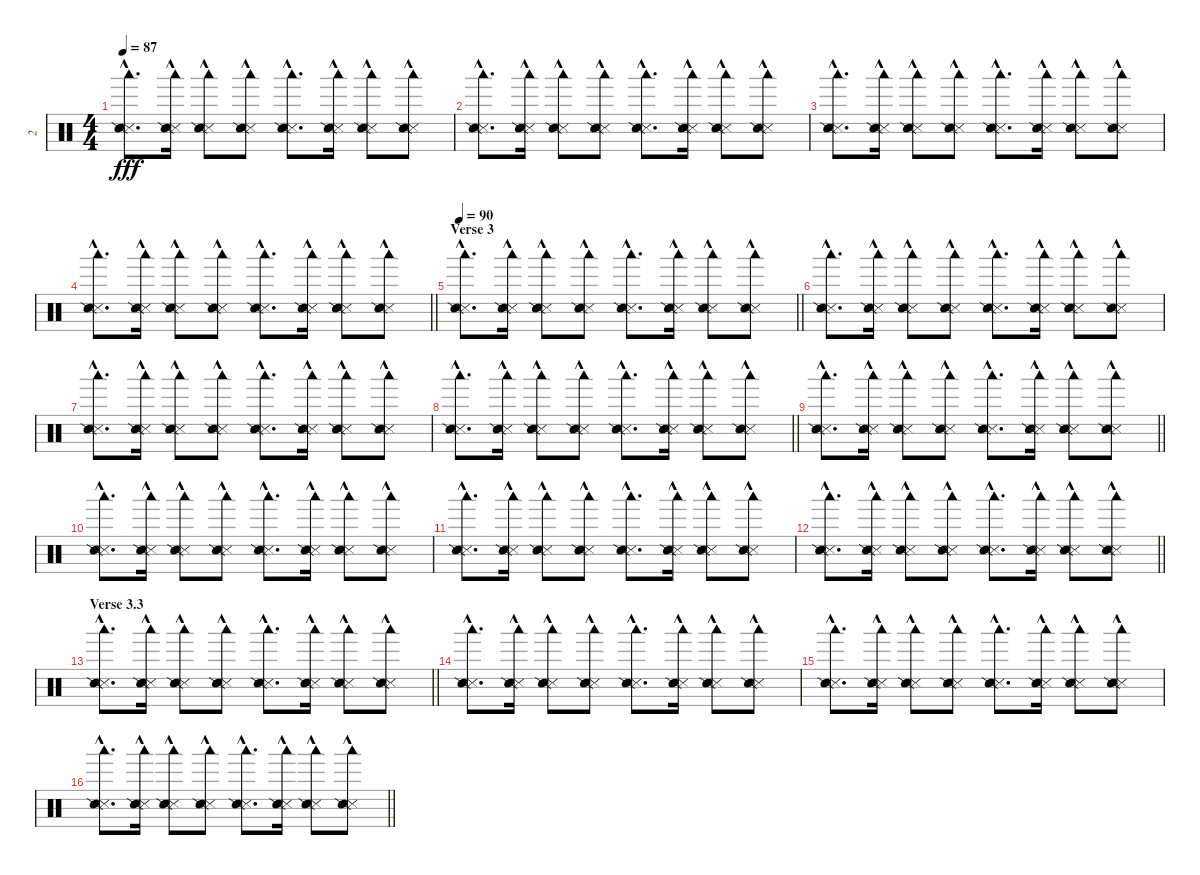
\track ("2" "2") {instrument percussion}
\staff {score}
\articulation defaults
\ts (4 4)
\tempo 87
\clef neutral
\ks c
("Snare (side stick) 3"{hac} "Snare (side stick) 2"{hac} "Woodblock low (hit)").8{d dy fff} ("Snare (side stick) 3"{hac} "Snare (side stick) 2"{hac} "Woodblock low (hit)").16 ("Snare (side stick) 3"{hac} "Snare (side stick) 2"{hac} "Woodblock low (hit)").8 ("Snare (side stick) 3"{hac} "Snare (side stick) 2"{hac} "Woodblock low (hit)").8 ("Snare (side stick) 3"{hac} "Snare (side stick) 2"{hac} "Woodblock low (hit)").8{d} ("Snare (side stick) 3"{hac} "Snare (side stick) 2"{hac} "Woodblock low (hit)").16 ("Snare (side stick) 3"{hac} "Snare (side stick) 2"{hac} "Woodblock low (hit)").8 ("Snare (side stick) 3"{hac} "Snare (side stick) 2"{hac} "Woodblock low (hit)").8 |
("Snare (side stick) 3"{hac} "Snare (side stick) 2"{hac} "Woodblock low (hit)").8{d} ("Snare (side stick) 3"{hac} "Snare (side stick) 2"{hac} "Woodblock low (hit)").16 ("Snare (side stick) 3"{hac} "Snare (side stick) 2"{hac} "Woodblock low (hit)").8 ("Snare (side stick) 3"{hac} "Snare (side stick) 2"{hac} "Woodblock low (hit)").8 ("Snare (side stick) 3"{hac} "Snare (side stick) 2"{hac} "Woodblock low (hit)").8{d} ("Snare (side stick) 3"{hac} "Snare (side stick) 2"{hac} "Woodblock low (hit)").16 ("Snare (side stick) 3"{hac} "Snare (side stick) 2"{hac} "Woodblock low (hit)").8 ("Snare (side stick) 3"{hac} "Snare (side stick) 2"{hac} "Woodblock low (hit)").8 |
("Snare (side stick) 3"{hac} "Snare (side stick) 2"{hac} "Woodblock low (hit)").8{d} ("Snare (side stick) 3"{hac} "Snare (side stick) 2"{hac} "Woodblock low (hit)").16 ("Snare (side stick) 3"{hac} "Snare (side stick) 2"{hac} "Woodblock low (hit)").8 ("Snare (side stick) 3"{hac} "Snare (side stick) 2"{hac} "Woodblock low (hit)").8 ("Snare (side stick) 3"{hac} "Snare (side stick) 2"{hac} "Woodblock low (hit)").8{d} ("Snare (side stick) 3"{hac} "Snare (side stick) 2"{hac} "Woodblock low (hit)").16 ("Snare (side stick) 3"{hac} "Snare (side stick) 2"{hac} "Woodblock low (hit)").8 ("Snare (side stick) 3"{hac} "Snare (side stick) 2"{hac} "Woodblock low (hit)").8 |
\barLineRight lightlight
("Snare (side stick) 3"{hac} "Snare (side stick) 2"{hac} "Woodblock low (hit)").8{d} ("Snare (side stick) 3"{hac} "Snare (side stick) 2"{hac} "Woodblock low (hit)").16 ("Snare (side stick) 3"{hac} "Snare (side stick) 2"{hac} "Woodblock low (hit)").8 ("Snare (side stick) 3"{hac} "Snare (side stick) 2"{hac} "Woodblock low (hit)").8 ("Snare (side stick) 3"{hac} "Snare (side stick) 2"{hac} "Woodblock low (hit)").8{d} ("Snare (side stick) 3"{hac} "Snare (side stick) 2"{hac} "Woodblock low (hit)").16 ("Snare (side stick) 3"{hac} "Snare (side stick) 2"{hac} "Woodblock low (hit)").8 ("Snare (side stick) 3"{hac} "Snare (side stick) 2"{hac} "Woodblock low (hit)").8 |
\section ("" "Verse 3")
\tempo 90
\barLineRight lightlight
("Snare (side stick) 3"{hac} "Snare (side stick) 2"{hac} "Woodblock low (hit)").8{d} ("Snare (side stick) 3"{hac} "Snare (side stick) 2"{hac} "Woodblock low (hit)").16 ("Snare (side stick) 3"{hac} "Snare (side stick) 2"{hac} "Woodblock low (hit)").8 ("Snare (side stick) 3"{hac} "Snare (side stick) 2"{hac} "Woodblock low (hit)").8 ("Snare (side stick) 3"{hac} "Snare (side stick) 2"{hac} "Woodblock low (hit)").8{d} ("Snare (side stick) 3"{hac} "Snare (side stick) 2"{hac} "Woodblock low (hit)").16 ("Snare (side stick) 3"{hac} "Snare (side stick) 2"{hac} "Woodblock low (hit)").8 ("Snare (side stick) 3"{hac} "Snare (side stick) 2"{hac} "Woodblock low (hit)").8 |
("Snare (side stick) 3"{hac} "Snare (side stick) 2"{hac} "Woodblock low (hit)").8{d} ("Snare (side stick) 3"{hac} "Snare (side stick) 2"{hac} "Woodblock low (hit)").16 ("Snare (side stick) 3"{hac} "Snare (side stick) 2"{hac} "Woodblock low (hit)").8 ("Snare (side stick) 3"{hac} "Snare (side stick) 2"{hac} "Woodblock low (hit)").8 ("Snare (side stick) 3"{hac} "Snare (side stick) 2"{hac} "Woodblock low (hit)").8{d} ("Snare (side stick) 3"{hac} "Snare (side stick) 2"{hac} "Woodblock low (hit)").16 ("Snare (side stick) 3"{hac} "Snare (side stick) 2"{hac} "Woodblock low (hit)").8 ("Snare (side stick) 3"{hac} "Snare (side stick) 2"{hac} "Woodblock low (hit)").8 |
("Snare (side stick) 3"{hac} "Snare (side stick) 2"{hac} "Woodblock low (hit)").8{d} ("Snare (side stick) 3"{hac} "Snare (side stick) 2"{hac} "Woodblock low (hit)").16 ("Snare (side stick) 3"{hac} "Snare (side stick) 2"{hac} "Woodblock low (hit)").8 ("Snare (side stick) 3"{hac} "Snare (side stick) 2"{hac} "Woodblock low (hit)").8 ("Snare (side stick) 3"{hac} "Snare (side stick) 2"{hac} "Woodblock low (hit)").8{d} ("Snare (side stick) 3"{hac} "Snare (side stick) 2"{hac} "Woodblock low (hit)").16 ("Snare (side stick) 3"{hac} "Snare (side stick) 2"{hac} "Woodblock low (hit)").8 ("Snare (side stick) 3"{hac} "Snare (side stick) 2"{hac} "Woodblock low (hit)").8 |
\barLineRight lightlight
("Snare (side stick) 3"{hac} "Snare (side stick) 2"{hac} "Woodblock low (hit)").8{d} ("Snare (side stick) 3"{hac} "Snare (side stick) 2"{hac} "Woodblock low (hit)").16 ("Snare (side stick) 3"{hac} "Snare (side stick) 2"{hac} "Woodblock low (hit)").8 ("Snare (side stick) 3"{hac} "Snare (side stick) 2"{hac} "Woodblock low (hit)").8 ("Snare (side stick) 3"{hac} "Snare (side stick) 2"{hac} "Woodblock low (hit)").8{d} ("Snare (side stick) 3"{hac} "Snare (side stick) 2"{hac} "Woodblock low (hit)").16 ("Snare (side stick) 3"{hac} "Snare (side stick) 2"{hac} "Woodblock low (hit)").8 ("Snare (side stick) 3"{hac} "Snare (side stick) 2"{hac} "Woodblock low (hit)").8 |
\barLineRight lightlight
("Snare (side stick) 3"{hac} "Snare (side stick) 2"{hac} "Woodblock low (hit)").8{d} ("Snare (side stick) 3"{hac} "Snare (side stick) 2"{hac} "Woodblock low (hit)").16 ("Snare (side stick) 3"{hac} "Snare (side stick) 2"{hac} "Woodblock low (hit)").8 ("Snare (side stick) 3"{hac} "Snare (side stick) 2"{hac} "Woodblock low (hit)").8 ("Snare (side stick) 3"{hac} "Snare (side stick) 2"{hac} "Woodblock low (hit)").8{d} ("Snare (side stick) 3"{hac} "Snare (side stick) 2"{hac} "Woodblock low (hit)").16 ("Snare (side stick) 3"{hac} "Snare (side stick) 2"{hac} "Woodblock low (hit)").8 ("Snare (side stick) 3"{hac} "Snare (side stick) 2"{hac} "Woodblock low (hit)").8 |
("Snare (side stick) 3"{hac} "Snare (side stick) 2"{hac} "Woodblock low (hit)").8{d} ("Snare (side stick) 3"{hac} "Snare (side stick) 2"{hac} "Woodblock low (hit)").16 ("Snare (side stick) 3"{hac} "Snare (side stick) 2"{hac} "Woodblock low (hit)").8 ("Snare (side stick) 3"{hac} "Snare (side stick) 2"{hac} "Woodblock low (hit)").8 ("Snare (side stick) 3"{hac} "Snare (side stick) 2"{hac} "Woodblock low (hit)").8{d} ("Snare (side stick) 3"{hac} "Snare (side stick) 2"{hac} "Woodblock low (hit)").16 ("Snare (side stick) 3"{hac} "Snare (side stick) 2"{hac} "Woodblock low (hit)").8 ("Snare (side stick) 3"{hac} "Snare (side stick) 2"{hac} "Woodblock low (hit)").8 |
("Snare (side stick) 3"{hac} "Snare (side stick) 2"{hac} "Woodblock low (hit)").8{d} ("Snare (side stick) 3"{hac} "Snare (side stick) 2"{hac} "Woodblock low (hit)").16 ("Snare (side stick) 3"{hac} "Snare (side stick) 2"{hac} "Woodblock low (hit)").8 ("Snare (side stick) 3"{hac} "Snare (side stick) 2"{hac} "Woodblock low (hit)").8 ("Snare (side stick) 3"{hac} "Snare (side stick) 2"{hac} "Woodblock low (hit)").8{d} ("Snare (side stick) 3"{hac} "Snare (side stick) 2"{hac} "Woodblock low (hit)").16 ("Snare (side stick) 3"{hac} "Snare (side stick) 2"{hac} "Woodblock low (hit)").8 ("Snare (side stick) 3"{hac} "Snare (side stick) 2"{hac} "Woodblock low (hit)").8 |
\barLineRight lightlight
("Snare (side stick) 3"{hac} "Snare (side stick) 2"{hac} "Woodblock low (hit)").8{d} ("Snare (side stick) 3"{hac} "Snare (side stick) 2"{hac} "Woodblock low (hit)").16 ("Snare (side stick) 3"{hac} "Snare (side stick) 2"{hac} "Woodblock low (hit)").8 ("Snare (side stick) 3"{hac} "Snare (side stick) 2"{hac} "Woodblock low (hit)").8 ("Snare (side stick) 3"{hac} "Snare (side stick) 2"{hac} "Woodblock low (hit)").8{d} ("Snare (side stick) 3"{hac} "Snare (side stick) 2"{hac} "Woodblock low (hit)").16 ("Snare (side stick) 3"{hac} "Snare (side stick) 2"{hac} "Woodblock low (hit)").8 ("Snare (side stick) 3"{hac} "Snare (side stick) 2"{hac} "Woodblock low (hit)").8 |
\section ("" "Verse 3.3")
\barLineRight lightlight
("Snare (side stick) 3"{hac} "Snare (side stick) 2"{hac} "Woodblock low (hit)").8{d} ("Snare (side stick) 3"{hac} "Snare (side stick) 2"{hac} "Woodblock low (hit)").16 ("Snare (side stick) 3"{hac} "Snare (side stick) 2"{hac} "Woodblock low (hit)").8 ("Snare (side stick) 3"{hac} "Snare (side stick) 2"{hac} "Woodblock low (hit)").8 ("Snare (side stick) 3"{hac} "Snare (side stick) 2"{hac} "Woodblock low (hit)").8{d} ("Snare (side stick) 3"{hac} "Snare (side stick) 2"{hac} "Woodblock low (hit)").16 ("Snare (side stick) 3"{hac} "Snare (side stick) 2"{hac} "Woodblock low (hit)").8 ("Snare (side stick) 3"{hac} "Snare (side stick) 2"{hac} "Woodblock low (hit)").8 |
("Snare (side stick) 3"{hac} "Snare (side stick) 2"{hac} "Woodblock low (hit)").8{d} ("Snare (side stick) 3"{hac} "Snare (side stick) 2"{hac} "Woodblock low (hit)").16 ("Snare (side stick) 3"{hac} "Snare (side stick) 2"{hac} "Woodblock low (hit)").8 ("Snare (side stick) 3"{hac} "Snare (side stick) 2"{hac} "Woodblock low (hit)").8 ("Snare (side stick) 3"{hac} "Snare (side stick) 2"{hac} "Woodblock low (hit)").8{d} ("Snare (side stick) 3"{hac} "Snare (side stick) 2"{hac} "Woodblock low (hit)").16 ("Snare (side stick) 3"{hac} "Snare (side stick) 2"{hac} "Woodblock low (hit)").8 ("Snare (side stick) 3"{hac} "Snare (side stick) 2"{hac} "Woodblock low (hit)").8 |
("Snare (side stick) 3"{hac} "Snare (side stick) 2"{hac} "Woodblock low (hit)").8{d} ("Snare (side stick) 3"{hac} "Snare (side stick) 2"{hac} "Woodblock low (hit)").16 ("Snare (side stick) 3"{hac} "Snare (side stick) 2"{hac} "Woodblock low (hit)").8 ("Snare (side stick) 3"{hac} "Snare (side stick) 2"{hac} "Woodblock low (hit)").8 ("Snare (side stick) 3"{hac} "Snare (side stick) 2"{hac} "Woodblock low (hit)").8{d} ("Snare (side stick) 3"{hac} "Snare (side stick) 2"{hac} "Woodblock low (hit)").16 ("Snare (side stick) 3"{hac} "Snare (side stick) 2"{hac} "Woodblock low (hit)").8 ("Snare (side stick) 3"{hac} "Snare (side stick) 2"{hac} "Woodblock low (hit)").8 |
\barLineRight lightlight
("Snare (side stick) 3"{hac} "Snare (side stick) 2"{hac} "Woodblock low (hit)").8{d} ("Snare (side stick) 3"{hac} "Snare (side stick) 2"{hac} "Woodblock low (hit)").16 ("Snare (side stick) 3"{hac} "Snare (side stick) 2"{hac} "Woodblock low (hit)").8 ("Snare (side stick) 3"{hac} "Snare (side stick) 2"{hac} "Woodblock low (hit)").8 ("Snare (side stick) 3"{hac} "Snare (side stick) 2"{hac} "Woodblock low (hit)").8{d} ("Snare (side stick) 3"{hac} "Snare (side stick) 2"{hac} "Woodblock low (hit)").16 ("Snare (side stick) 3"{hac} "Snare (side stick) 2"{hac} "Woodblock low (hit)").8 ("Snare (side stick) 3"{hac} "Snare (side stick) 2"{hac} "Woodblock low (hit)").8
